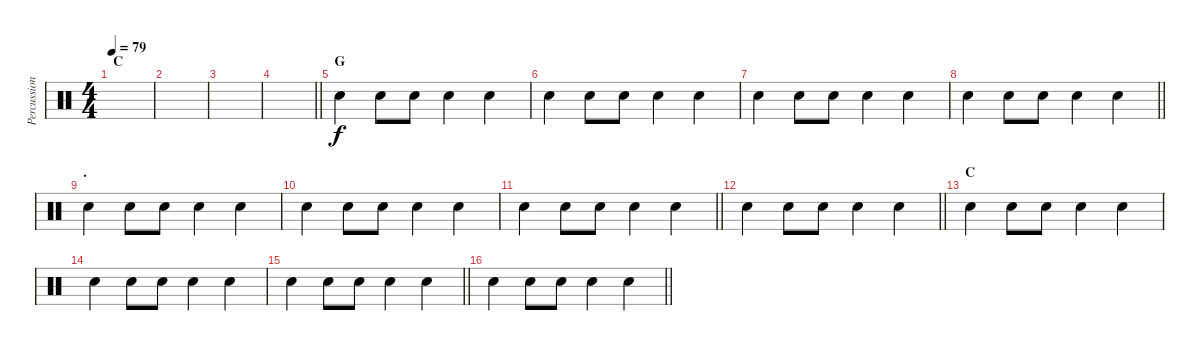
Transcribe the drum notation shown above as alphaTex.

\track ("Percussion" "Percussion") {instrument percussion}
\staff {score}
\articulation defaults
\ts (4 4)
\section ("" "C")
\tempo 79
\clef neutral
\ks c
|
|
|
\barLineRight lightlight
|
\section ("" "G")
"Snare (hit) 2".4 "Snare (hit) 2".8 "Snare (hit) 2".8 "Snare (hit) 2".4 "Snare (hit) 2".4 |
"Snare (hit) 2".4 "Snare (hit) 2".8 "Snare (hit) 2".8 "Snare (hit) 2".4 "Snare (hit) 2".4 |
"Snare (hit) 2".4 "Snare (hit) 2".8 "Snare (hit) 2".8 "Snare (hit) 2".4 "Snare (hit) 2".4 |
\barLineRight lightlight "Snare (hit) 2".4 "Snare (hit) 2".8 "Snare (hit) 2".8 "Snare (hit) 2".4 "Snare (hit) 2".4
|
\section ("" ".")
"Snare (hit) 2".4 "Snare (hit) 2".8 "Snare (hit) 2".8 "Snare (hit) 2".4 "Snare (hit) 2".4 |
"Snare (hit) 2".4 "Snare (hit) 2".8 "Snare (hit) 2".8 "Snare (hit) 2".4 "Snare (hit) 2".4 |
\barLineRight lightlight "Snare (hit) 2".4 "Snare (hit) 2".8 "Snare (hit) 2".8 "Snare (hit) 2".4 "Snare (hit) 2".4
|
\barLineRight lightlight "Snare (hit) 2".4 "Snare (hit) 2".8 "Snare (hit) 2".8 "Snare (hit) 2".4 "Snare (hit) 2".4
|
\section ("" "C")
"Snare (hit) 2".4 "Snare (hit) 2".8 "Snare (hit) 2".8 "Snare (hit) 2".4 "Snare (hit) 2".4 |
"Snare (hit) 2".4 "Snare (hit) 2".8 "Snare (hit) 2".8 "Snare (hit) 2".4 "Snare (hit) 2".4 |
\barLineRight lightlight "Snare (hit) 2".4 "Snare (hit) 2".8 "Snare (hit) 2".8 "Snare (hit) 2".4 "Snare (hit) 2".4
|
\barLineRight lightlight "Snare (hit) 2".4 "Snare (hit) 2".8 "Snare (hit) 2".8 "Snare (hit) 2".4 "Snare (hit) 2".4
